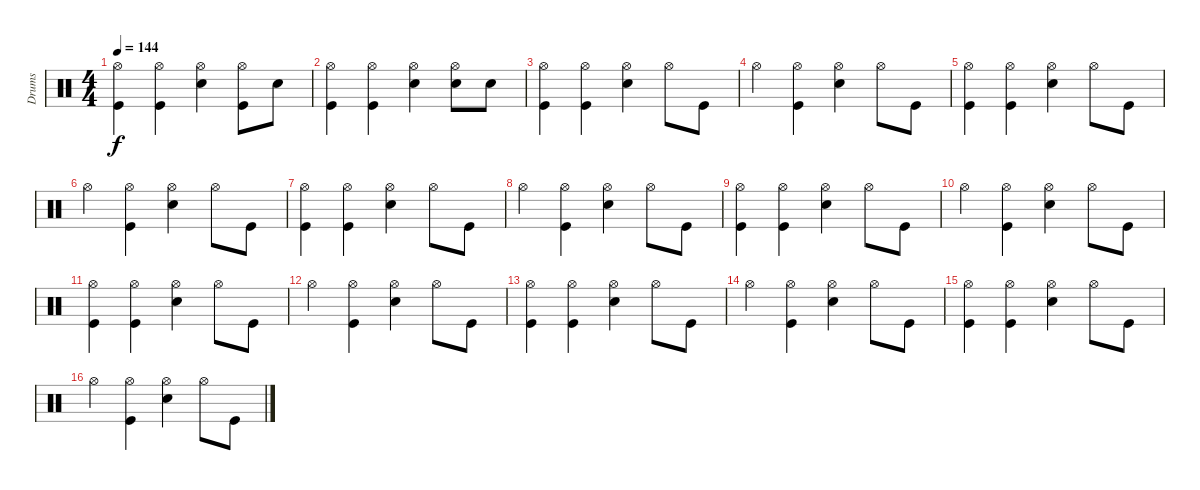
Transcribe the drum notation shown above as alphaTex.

\track ("Drums               " "Drums     ") {instrument percussion}
\staff {score}
\articulation defaults
\ts (4 4)
\tempo 144
\clef neutral
\ks c
("Kick (hit)" "Hi-Hat (open)").4{dy f} ("Kick (hit)" "Hi-Hat (open)").4 ("Snare (hit) 2" "Hi-Hat (open)").4 ("Hi-Hat (open)" "Kick (hit)").8 "Snare (hit) 2".8 |
("Kick (hit)" "Hi-Hat (open)").4 ("Kick (hit)" "Hi-Hat (open)").4 ("Snare (hit) 2" "Hi-Hat (open)").4 ("Hi-Hat (open)" "Snare (hit) 2").8 "Snare (hit) 2".8 |
("Kick (hit)" "Hi-Hat (open)").4 ("Kick (hit)" "Hi-Hat (open)").4 ("Snare (hit) 2" "Hi-Hat (open)").4 "Hi-Hat (open)".8 "Kick (hit)".8 |
"Hi-Hat (open)".4 ("Hi-Hat (open)" "Kick (hit)").4 ("Snare (hit) 2" "Hi-Hat (open)").4 "Hi-Hat (open)".8 "Kick (hit)".8 |
("Kick (hit)" "Hi-Hat (open)").4 ("Kick (hit)" "Hi-Hat (open)").4 ("Snare (hit) 2" "Hi-Hat (open)").4 "Hi-Hat (open)".8 "Kick (hit)".8 |
"Hi-Hat (open)".4 ("Hi-Hat (open)" "Kick (hit)").4 ("Snare (hit) 2" "Hi-Hat (open)").4 "Hi-Hat (open)".8 "Kick (hit)".8 |
("Kick (hit)" "Hi-Hat (open)").4 ("Kick (hit)" "Hi-Hat (open)").4 ("Snare (hit) 2" "Hi-Hat (open)").4 "Hi-Hat (open)".8 "Kick (hit)".8 |
"Hi-Hat (open)".4 ("Hi-Hat (open)" "Kick (hit)").4 ("Snare (hit) 2" "Hi-Hat (open)").4 "Hi-Hat (open)".8 "Kick (hit)".8 |
("Kick (hit)" "Hi-Hat (open)").4 ("Kick (hit)" "Hi-Hat (open)").4 ("Snare (hit) 2" "Hi-Hat (open)").4 "Hi-Hat (open)".8 "Kick (hit)".8 |
"Hi-Hat (open)".4 ("Hi-Hat (open)" "Kick (hit)").4 ("Snare (hit) 2" "Hi-Hat (open)").4 "Hi-Hat (open)".8 "Kick (hit)".8 |
("Kick (hit)" "Hi-Hat (open)").4 ("Kick (hit)" "Hi-Hat (open)").4 ("Snare (hit) 2" "Hi-Hat (open)").4 "Hi-Hat (open)".8 "Kick (hit)".8 |
"Hi-Hat (open)".4 ("Hi-Hat (open)" "Kick (hit)").4 ("Snare (hit) 2" "Hi-Hat (open)").4 "Hi-Hat (open)".8 "Kick (hit)".8 |
("Kick (hit)" "Hi-Hat (open)").4 ("Kick (hit)" "Hi-Hat (open)").4 ("Snare (hit) 2" "Hi-Hat (open)").4 "Hi-Hat (open)".8 "Kick (hit)".8 |
"Hi-Hat (open)".4 ("Hi-Hat (open)" "Kick (hit)").4 ("Snare (hit) 2" "Hi-Hat (open)").4 "Hi-Hat (open)".8 "Kick (hit)".8 |
("Kick (hit)" "Hi-Hat (open)").4 ("Kick (hit)" "Hi-Hat (open)").4 ("Snare (hit) 2" "Hi-Hat (open)").4 "Hi-Hat (open)".8 "Kick (hit)".8 |
"Hi-Hat (open)".4 ("Hi-Hat (open)" "Kick (hit)").4 ("Snare (hit) 2" "Hi-Hat (open)").4 "Hi-Hat (open)".8 "Kick (hit)".8
